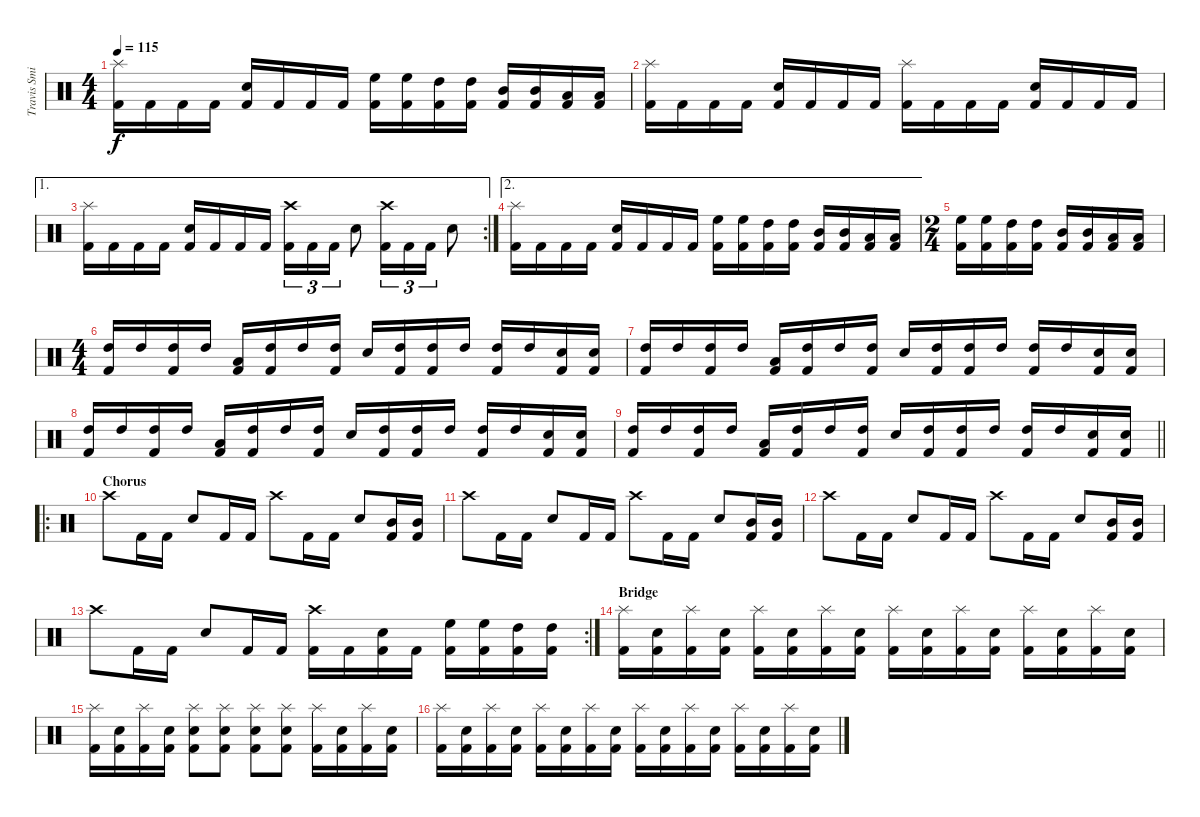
\track ("Travis Smith" "Travis Smi") {instrument percussion}
\staff {score}
\articulation defaults
\ts (4 4)
\tempo 115
\clef neutral
\ks c
("Splash (hit)" "Kick (hit) 2").16{dy f} "Kick (hit) 2".16 "Kick (hit) 2".16 "Kick (hit) 2".16 ("Electric Snare (hit)" "Kick (hit) 2").16 "Kick (hit) 2".16 "Kick (hit) 2".16 "Kick (hit) 2".16 ("High Floor Tom (hit)" "Kick (hit) 2").16 ("High Floor Tom (hit)" "Kick (hit) 2").16 ("High Tom (hit)" "Kick (hit) 2").16 ("High Tom (hit)" "Kick (hit) 2").16 ("Mid Tom (hit)" "Kick (hit) 2").16 ("Mid Tom (hit)" "Kick (hit) 2").16 ("Low Tom (hit)" "Kick (hit) 2").16 ("Low Tom (hit)" "Kick (hit) 2").16 |
("Splash (hit)" "Kick (hit) 2").16 "Kick (hit) 2".16 "Kick (hit) 2".16 "Kick (hit) 2".16 ("Electric Snare (hit)" "Kick (hit) 2").16 "Kick (hit) 2".16 "Kick (hit) 2".16 "Kick (hit) 2".16 ("Splash (hit)" "Kick (hit) 2").16 "Kick (hit) 2".16 "Kick (hit) 2".16 "Kick (hit) 2".16 ("Electric Snare (hit)" "Kick (hit) 2").16 "Kick (hit) 2".16 "Kick (hit) 2".16 "Kick (hit) 2".16 |
\ae 1
\rc 2
("Splash (hit)" "Kick (hit) 2").16 "Kick (hit) 2".16 "Kick (hit) 2".16 "Kick (hit) 2".16 ("Electric Snare (hit)" "Kick (hit) 2").16 "Kick (hit) 2".16 "Kick (hit) 2".16 "Kick (hit) 2".16 ("Crash high (hit)" "Kick (hit) 2").16{tu (3 2)} "Kick (hit) 2".16{tu (3 2)} "Kick (hit) 2".16{tu (3 2)} "Electric Snare (hit)".8 ("Crash high (hit)" "Kick (hit) 2").16{tu (3 2)} "Kick (hit) 2".16{tu (3 2)} "Kick (hit) 2".16{tu (3 2)} "Electric Snare (hit)".8 |
\ae 2
("Splash (hit)" "Kick (hit) 2").16 "Kick (hit) 2".16 "Kick (hit) 2".16 "Kick (hit) 2".16 ("Electric Snare (hit)" "Kick (hit) 2").16 "Kick (hit) 2".16 "Kick (hit) 2".16 "Kick (hit) 2".16 ("High Floor Tom (hit)" "Kick (hit) 2").16 ("High Floor Tom (hit)" "Kick (hit) 2").16 ("High Tom (hit)" "Kick (hit) 2").16 ("High Tom (hit)" "Kick (hit) 2").16 ("Mid Tom (hit)" "Kick (hit) 2").16 ("Mid Tom (hit)" "Kick (hit) 2").16 ("Low Tom (hit)" "Kick (hit) 2").16 ("Low Tom (hit)" "Kick (hit) 2").16 |
\ts (2 4)
("High Floor Tom (hit)" "Kick (hit) 2").16 ("High Floor Tom (hit)" "Kick (hit) 2").16 ("High Tom (hit)" "Kick (hit) 2").16 ("High Tom (hit)" "Kick (hit) 2").16 ("Mid Tom (hit)" "Kick (hit) 2").16 ("Mid Tom (hit)" "Kick (hit) 2").16 ("Low Tom (hit)" "Kick (hit) 2").16 ("Low Tom (hit)" "Kick (hit) 2").16 |
\ts (4 4)
("High Tom (hit)" "Kick (hit) 2").16 "High Tom (hit)".16 ("High Tom (hit)" "Kick (hit) 2").16 "High Tom (hit)".16 ("Low Tom (hit)" "Kick (hit) 2").16 ("High Tom (hit)" "Kick (hit) 2").16 "High Tom (hit)".16 ("High Tom (hit)" "Kick (hit) 2").16 "Electric Snare (hit)".16 ("High Tom (hit)" "Kick (hit) 2").16 ("High Tom (hit)" "Kick (hit) 2").16 "High Tom (hit)".16 ("High Tom (hit)" "Kick (hit) 2").16 "High Tom (hit)".16 ("Electric Snare (hit)" "Kick (hit) 2").16 ("Electric Snare (hit)" "Kick (hit) 2").16 |
("High Tom (hit)" "Kick (hit) 2").16 "High Tom (hit)".16 ("High Tom (hit)" "Kick (hit) 2").16 "High Tom (hit)".16 ("Low Tom (hit)" "Kick (hit) 2").16 ("High Tom (hit)" "Kick (hit) 2").16 "High Tom (hit)".16 ("High Tom (hit)" "Kick (hit) 2").16 "Electric Snare (hit)".16 ("High Tom (hit)" "Kick (hit) 2").16 ("High Tom (hit)" "Kick (hit) 2").16 "High Tom (hit)".16 ("High Tom (hit)" "Kick (hit) 2").16 "High Tom (hit)".16 ("Electric Snare (hit)" "Kick (hit) 2").16 ("Electric Snare (hit)" "Kick (hit) 2").16 |
("High Tom (hit)" "Kick (hit) 2").16 "High Tom (hit)".16 ("High Tom (hit)" "Kick (hit) 2").16 "High Tom (hit)".16 ("Low Tom (hit)" "Kick (hit) 2").16 ("High Tom (hit)" "Kick (hit) 2").16 "High Tom (hit)".16 ("High Tom (hit)" "Kick (hit) 2").16 "Electric Snare (hit)".16 ("High Tom (hit)" "Kick (hit) 2").16 ("High Tom (hit)" "Kick (hit) 2").16 "High Tom (hit)".16 ("High Tom (hit)" "Kick (hit) 2").16 "High Tom (hit)".16 ("Electric Snare (hit)" "Kick (hit) 2").16 ("Electric Snare (hit)" "Kick (hit) 2").16 |
\barLineRight lightlight
("High Tom (hit)" "Kick (hit) 2").16 "High Tom (hit)".16 ("High Tom (hit)" "Kick (hit) 2").16 "High Tom (hit)".16 ("Low Tom (hit)" "Kick (hit) 2").16 ("High Tom (hit)" "Kick (hit) 2").16 "High Tom (hit)".16 ("High Tom (hit)" "Kick (hit) 2").16 "Electric Snare (hit)".16 ("High Tom (hit)" "Kick (hit) 2").16 ("High Tom (hit)" "Kick (hit) 2").16 "High Tom (hit)".16 ("High Tom (hit)" "Kick (hit) 2").16 "High Tom (hit)".16 ("Electric Snare (hit)" "Kick (hit) 2").16 ("Electric Snare (hit)" "Kick (hit) 2").16 |
\ro
\section ("" "Chorus")
"Crash high (hit)".8 "Kick (hit) 2".16 "Kick (hit) 2".16 "Electric Snare (hit)".8 "Kick (hit) 2".16 "Kick (hit) 2".16 "Crash high (hit)".8 "Kick (hit) 2".16 "Kick (hit) 2".16 "Electric Snare (hit)".8 ("Mid Tom (hit)" "Kick (hit) 2").16 ("Mid Tom (hit)" "Kick (hit) 2").16 |
"Crash high (hit)".8 "Kick (hit) 2".16 "Kick (hit) 2".16 "Electric Snare (hit)".8 "Kick (hit) 2".16 "Kick (hit) 2".16 "Crash high (hit)".8 "Kick (hit) 2".16 "Kick (hit) 2".16 "Electric Snare (hit)".8 ("Mid Tom (hit)" "Kick (hit) 2").16 ("Mid Tom (hit)" "Kick (hit) 2").16 |
"Crash high (hit)".8 "Kick (hit) 2".16 "Kick (hit) 2".16 "Electric Snare (hit)".8 "Kick (hit) 2".16 "Kick (hit) 2".16 "Crash high (hit)".8 "Kick (hit) 2".16 "Kick (hit) 2".16 "Electric Snare (hit)".8 ("Mid Tom (hit)" "Kick (hit) 2").16 ("Mid Tom (hit)" "Kick (hit) 2").16 |
\rc 2 "Crash high (hit)".8 "Kick (hit) 2".16 "Kick (hit) 2".16 "Electric Snare (hit)".8 "Kick (hit) 2".16 "Kick (hit) 2".16
("Crash high (hit)" "Kick (hit) 2").16 "Kick (hit) 2".16 ("Electric Snare (hit)" "Kick (hit) 2").16 "Kick (hit) 2".16 ("High Floor Tom (hit)" "Kick (hit) 2").16 ("High Floor Tom (hit)" "Kick (hit) 2").16 ("High Tom (hit)" "Kick (hit) 2").16 ("High Tom (hit)" "Kick (hit) 2").16 |
\section ("" "Bridge")
("Splash (hit)" "Kick (hit) 2").16 ("Electric Snare (hit)" "Kick (hit) 2").16 ("Splash (hit)" "Kick (hit) 2").16 ("Electric Snare (hit)" "Kick (hit) 2").16 ("Splash (hit)" "Kick (hit) 2").16 ("Electric Snare (hit)" "Kick (hit) 2").16 ("Splash (hit)" "Kick (hit) 2").16 ("Electric Snare (hit)" "Kick (hit) 2").16 ("Splash (hit)" "Kick (hit) 2").16 ("Electric Snare (hit)" "Kick (hit) 2").16 ("Splash (hit)" "Kick (hit) 2").16 ("Electric Snare (hit)" "Kick (hit) 2").16 ("Splash (hit)" "Kick (hit) 2").16 ("Electric Snare (hit)" "Kick (hit) 2").16 ("Splash (hit)" "Kick (hit) 2").16 ("Electric Snare (hit)" "Kick (hit) 2").16 |
("Splash (hit)" "Kick (hit) 2").16 ("Electric Snare (hit)" "Kick (hit) 2").16 ("Splash (hit)" "Kick (hit) 2").16 ("Electric Snare (hit)" "Kick (hit) 2").16 ("Splash (hit)" "Electric Snare (hit)" "Kick (hit) 2").8 ("Splash (hit)" "Electric Snare (hit)" "Kick (hit) 2").8 ("Splash (hit)" "Electric Snare (hit)" "Kick (hit) 2").8 ("Splash (hit)" "Electric Snare (hit)" "Kick (hit) 2").8 ("Splash (hit)" "Kick (hit) 2").16 ("Electric Snare (hit)" "Kick (hit) 2").16 ("Splash (hit)" "Kick (hit) 2").16 ("Electric Snare (hit)" "Kick (hit) 2").16 |
("Splash (hit)" "Kick (hit) 2").16 ("Electric Snare (hit)" "Kick (hit) 2").16 ("Splash (hit)" "Kick (hit) 2").16 ("Electric Snare (hit)" "Kick (hit) 2").16 ("Splash (hit)" "Kick (hit) 2").16 ("Electric Snare (hit)" "Kick (hit) 2").16 ("Splash (hit)" "Kick (hit) 2").16 ("Electric Snare (hit)" "Kick (hit) 2").16 ("Splash (hit)" "Kick (hit) 2").16 ("Electric Snare (hit)" "Kick (hit) 2").16 ("Splash (hit)" "Kick (hit) 2").16 ("Electric Snare (hit)" "Kick (hit) 2").16 ("Splash (hit)" "Kick (hit) 2").16 ("Electric Snare (hit)" "Kick (hit) 2").16 ("Splash (hit)" "Kick (hit) 2").16 ("Electric Snare (hit)" "Kick (hit) 2").16
